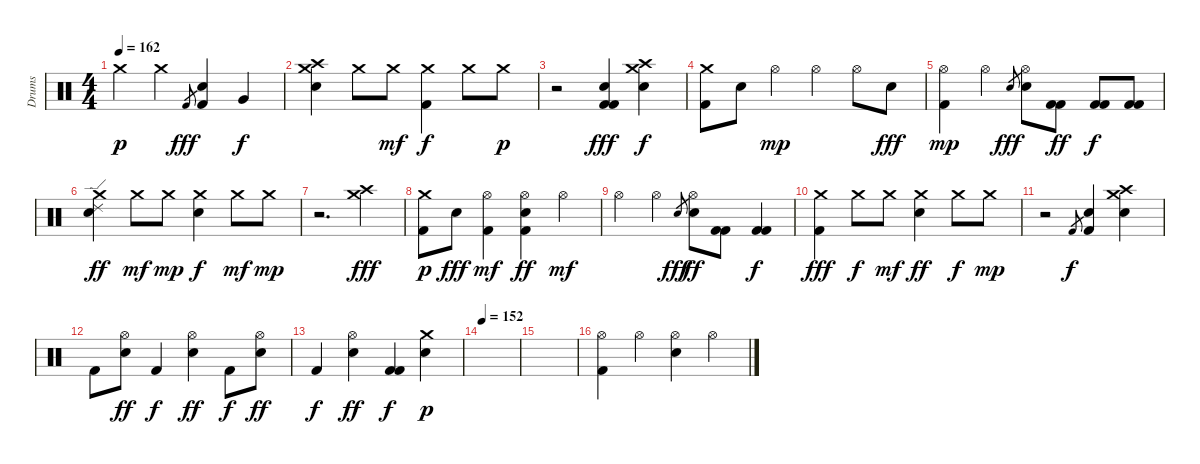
\track ("Drums" "Drums") {instrument percussion}
\staff {score}
\articulation defaults
\ts (4 4)
\tempo 162
\clef neutral
\ks c "Crash medium (hit)".4{dy p} "Crash medium (hit)".4 "Kick (hit) 2".8{gr dy fff}
("Snare (hit) 2" "Kick (hit) 2").4 "Very Low Tom (hit)".4{dy f} |
("Crash medium (hit)" "Crash high (hit)" "Snare (hit) 2").4 "Crash medium (hit)".8 "Crash medium (hit)".8{dy mf} ("Crash medium (hit)" "Kick (hit) 2").4{dy f} "Crash medium (hit)".8 "Crash medium (hit)".8{dy p} |
r.2 ("Kick (hit) 2" "Kick (hit) 2" "Snare (hit) 2").4{dy fff} ("Crash medium (hit)" "Crash high (hit)" "Snare (hit) 2").4{dy f} |
("Crash medium (hit)" "Kick (hit) 2").8 "Snare (hit) 2".8 "Hi-Hat (open)".4{dy mp} "Hi-Hat (open)".4 "Hi-Hat (open)".8 "Snare (hit) 2".8{dy fff} |
("Hi-Hat (open)" "Kick (hit) 2").4{dy mp} "Hi-Hat (open)".4 "Snare (hit) 2".8{gr dy fff} ("Hi-Hat (open)" "Snare (hit) 2").8 ("Kick (hit) 2" "Kick (hit) 2").8{dy ff} ("Kick (hit) 2" "Kick (hit) 2").8{dy f} ("Kick (hit) 2" "Kick (hit) 2").8 |
("Crash medium (hit)" "Ride (edge) 2" "Snare (hit) 2").4{dy ff} "Crash medium (hit)".8{dy mf} "Crash medium (hit)".8{dy mp} ("Crash medium (hit)" "Snare (hit) 2").4{dy f} "Crash medium (hit)".8{dy mf} "Crash medium (hit)".8{dy mp} |
r.2{d} ("Crash medium (hit)" "Crash high (hit)").4{dy fff} |
("Crash medium (hit)" "Kick (hit) 2").8{dy p} "Snare (hit) 2".8{dy fff} ("Hi-Hat (open)" "Kick (hit) 2").4{dy mf} ("Hi-Hat (open)" "Snare (hit) 2" "Kick (hit) 2").4{dy ff} "Hi-Hat (open)".4{dy mf} |
"Hi-Hat (open)".4 "Hi-Hat (open)".4 "Snare (hit) 2".8{gr dy fff} ("Hi-Hat (open)" "Snare (hit) 2").8{dy ff} ("Kick (hit) 2" "Kick (hit) 2").8 ("Kick (hit) 2" "Kick (hit) 2").4{dy f} |
("Crash medium (hit)" "Kick (hit) 2").4{dy fff} "Crash medium (hit)".8{dy f} "Crash medium (hit)".8{dy mf} ("Crash medium (hit)" "Snare (hit) 2").4{dy ff} "Crash medium (hit)".8{dy f} "Crash medium (hit)".8{dy mp} |
r.2 "Kick (hit) 2".8{gr dy f} ("Kick (hit) 2" "Snare (hit) 2").4 ("Crash medium (hit)" "Crash high (hit)" "Snare (hit) 2").4 |
"Kick (hit) 2".8 ("Hi-Hat (open)" "Snare (hit) 2").8{dy ff} "Kick (hit) 2".4{dy f} ("Hi-Hat (open)" "Snare (hit) 2").4{dy ff} "Kick (hit) 2".8{dy f} ("Hi-Hat (open)" "Snare (hit) 2").8{dy ff} |
"Kick (hit) 2".4{dy f} ("Hi-Hat (open)" "Snare (hit) 2").4{dy ff} ("Kick (hit) 2" "Kick (hit) 2").4{dy f} ("Crash medium (hit)" "Snare (hit) 2").4{dy p} |
\tempo 152
|
|
("Hi-Hat (open)" "Kick (hit) 2").4 "Hi-Hat (open)".4 ("Hi-Hat (open)" "Snare (hit) 2").4 "Hi-Hat (open)".4
